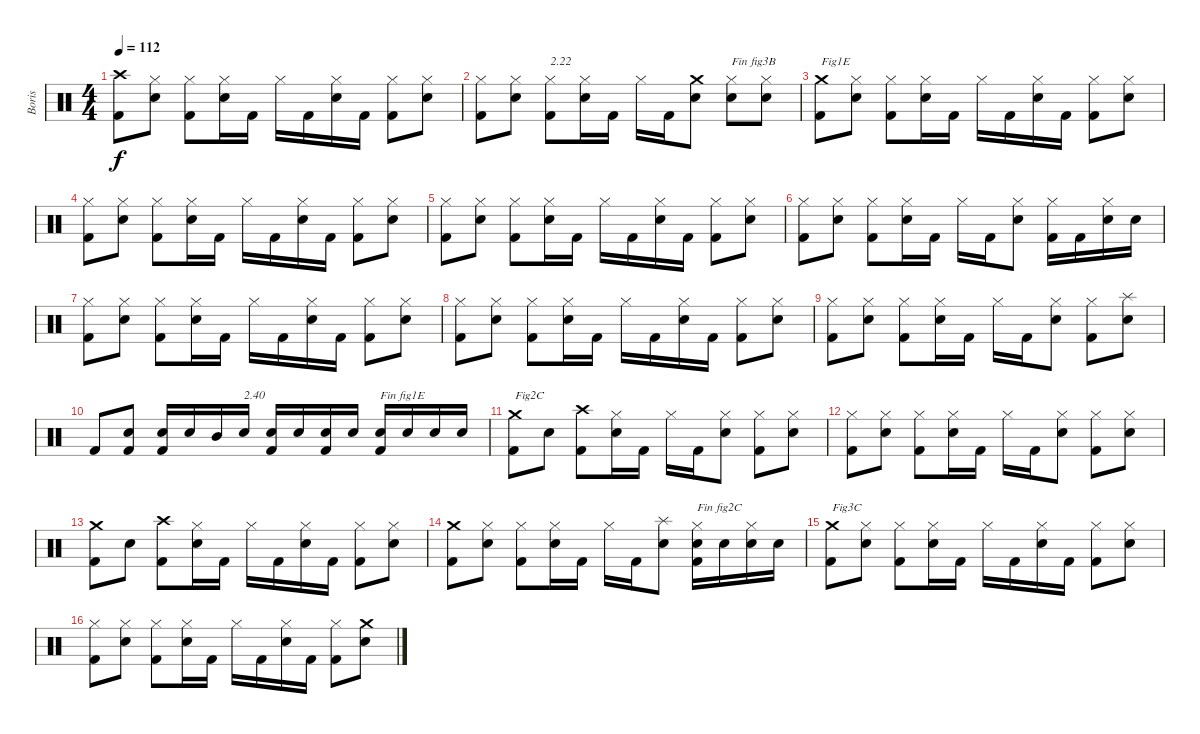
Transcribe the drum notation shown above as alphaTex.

\track ("Boris" "Boris") {instrument percussion}
\staff {score}
\articulation defaults
\ts (4 4)
\tempo 112
\clef neutral
\ks c
("Kick (hit) 2" "Crash high (hit)").8{dy f} ("Electric Snare (hit)" "Hi-Hat (closed)").8 ("Kick (hit) 2" "Hi-Hat (closed)").8 ("Electric Snare (hit)" "Hi-Hat (closed)").16 "Kick (hit) 2".16 "Hi-Hat (closed)".16 "Kick (hit) 2".16 ("Electric Snare (hit)" "Hi-Hat (closed)").16 "Kick (hit) 2".16 ("Kick (hit) 2" "Hi-Hat (closed)").8 ("Electric Snare (hit)" "Hi-Hat (closed)").8 |
("Kick (hit) 2" "Hi-Hat (closed)").8 ("Electric Snare (hit)" "Hi-Hat (closed)").8 ("Kick (hit) 2" "Hi-Hat (closed)").8{txt "2.22"} ("Electric Snare (hit)" "Hi-Hat (closed)").16 "Kick (hit) 2".16 "Hi-Hat (closed)".16 "Kick (hit) 2".16 ("Electric Snare (hit)" "Crash medium (hit)").8 ("Electric Snare (hit)" "Hi-Hat (closed)").8{txt "Fin fig3B"} ("Electric Snare (hit)" "Hi-Hat (closed)").8 |
("Kick (hit) 2" "Crash medium (hit)").8{txt "Fig1E"} ("Electric Snare (hit)" "Hi-Hat (closed)").8 ("Kick (hit) 2" "Hi-Hat (closed)").8 ("Electric Snare (hit)" "Hi-Hat (closed)").16 "Kick (hit) 2".16 "Hi-Hat (closed)".16 "Kick (hit) 2".16 ("Electric Snare (hit)" "Hi-Hat (closed)").16 "Kick (hit) 2".16 ("Kick (hit) 2" "Hi-Hat (closed)").8 ("Electric Snare (hit)" "Hi-Hat (closed)").8 |
("Kick (hit) 2" "Hi-Hat (closed)").8 ("Electric Snare (hit)" "Hi-Hat (closed)").8 ("Kick (hit) 2" "Hi-Hat (closed)").8 ("Electric Snare (hit)" "Hi-Hat (closed)").16 "Kick (hit) 2".16 "Hi-Hat (closed)".16 "Kick (hit) 2".16 ("Electric Snare (hit)" "Hi-Hat (closed)").16 "Kick (hit) 2".16 ("Kick (hit) 2" "Hi-Hat (closed)").8 ("Electric Snare (hit)" "Hi-Hat (closed)").8 |
("Kick (hit) 2" "Hi-Hat (closed)").8 ("Electric Snare (hit)" "Hi-Hat (closed)").8 ("Kick (hit) 2" "Hi-Hat (closed)").8 ("Electric Snare (hit)" "Hi-Hat (closed)").16 "Kick (hit) 2".16 "Hi-Hat (closed)".16 "Kick (hit) 2".16 ("Electric Snare (hit)" "Hi-Hat (closed)").16 "Kick (hit) 2".16 ("Kick (hit) 2" "Hi-Hat (closed)").8 ("Electric Snare (hit)" "Hi-Hat (closed)").8 |
("Kick (hit) 2" "Hi-Hat (closed)").8 ("Electric Snare (hit)" "Hi-Hat (closed)").8 ("Kick (hit) 2" "Hi-Hat (closed)").8 ("Electric Snare (hit)" "Hi-Hat (closed)").16 "Kick (hit) 2".16 "Hi-Hat (closed)".16 "Kick (hit) 2".16 ("Electric Snare (hit)" "Hi-Hat (closed)").8 ("Kick (hit) 2" "Hi-Hat (closed)").16 "Kick (hit) 2".16 ("Electric Snare (hit)" "Hi-Hat (closed)").16 "Electric Snare (hit)".16 |
("Kick (hit) 2" "Hi-Hat (closed)").8 ("Electric Snare (hit)" "Hi-Hat (closed)").8 ("Kick (hit) 2" "Hi-Hat (closed)").8 ("Electric Snare (hit)" "Hi-Hat (closed)").16 "Kick (hit) 2".16 "Hi-Hat (closed)".16 "Kick (hit) 2".16 ("Electric Snare (hit)" "Hi-Hat (closed)").16 "Kick (hit) 2".16 ("Kick (hit) 2" "Hi-Hat (closed)").8 ("Electric Snare (hit)" "Hi-Hat (closed)").8 |
("Kick (hit) 2" "Hi-Hat (closed)").8 ("Electric Snare (hit)" "Hi-Hat (closed)").8 ("Kick (hit) 2" "Hi-Hat (closed)").8 ("Electric Snare (hit)" "Hi-Hat (closed)").16 "Kick (hit) 2".16 "Hi-Hat (closed)".16 "Kick (hit) 2".16 ("Electric Snare (hit)" "Hi-Hat (closed)").16 "Kick (hit) 2".16 ("Kick (hit) 2" "Hi-Hat (closed)").8 ("Electric Snare (hit)" "Hi-Hat (closed)").8 |
("Kick (hit) 2" "Hi-Hat (closed)").8 ("Electric Snare (hit)" "Hi-Hat (closed)").8 ("Kick (hit) 2" "Hi-Hat (closed)").8 ("Electric Snare (hit)" "Hi-Hat (closed)").16 "Kick (hit) 2".16 "Hi-Hat (closed)".16 "Kick (hit) 2".16 ("Electric Snare (hit)" "Hi-Hat (closed)").8 ("Kick (hit) 2" "Hi-Hat (closed)").8 ("Electric Snare (hit)" "Splash (hit)").8 |
"Kick (hit) 2".8 ("Kick (hit) 2" "Electric Snare (hit)").8 ("Kick (hit) 2" "Electric Snare (hit)").16 "Electric Snare (hit)".16 "Mid Tom (hit)".16 "Electric Snare (hit)".16{txt "2.40"} ("Kick (hit) 2" "Electric Snare (hit)").16 "Electric Snare (hit)".16 ("Kick (hit) 2" "Electric Snare (hit)").16 "Electric Snare (hit)".16 ("Kick (hit) 2" "Electric Snare (hit)").16{txt "Fin fig1E"} "Electric Snare (hit)".16 "Electric Snare (hit)".16 "Electric Snare (hit)".16 |
("Kick (hit) 2" "Crash medium (hit)").8{txt "Fig2C"} "Electric Snare (hit)".8 ("Kick (hit) 2" "Crash high (hit)").8 ("Electric Snare (hit)" "Hi-Hat (closed)").16 "Kick (hit) 2".16 "Hi-Hat (closed)".16 "Kick (hit) 2".16 ("Electric Snare (hit)" "Hi-Hat (closed)").8 ("Kick (hit) 2" "Hi-Hat (closed)").8 ("Electric Snare (hit)" "Hi-Hat (closed)").8 |
("Kick (hit) 2" "Hi-Hat (closed)").8 ("Electric Snare (hit)" "Hi-Hat (closed)").8 ("Kick (hit) 2" "Hi-Hat (closed)").8 ("Electric Snare (hit)" "Hi-Hat (closed)").16 "Kick (hit) 2".16 "Hi-Hat (closed)".16 "Kick (hit) 2".16 ("Electric Snare (hit)" "Hi-Hat (closed)").8 ("Kick (hit) 2" "Hi-Hat (closed)").8 ("Electric Snare (hit)" "Hi-Hat (closed)").8 |
("Kick (hit) 2" "Crash medium (hit)").8 "Electric Snare (hit)".8 ("Kick (hit) 2" "Crash high (hit)").8 ("Electric Snare (hit)" "Hi-Hat (closed)").16 "Kick (hit) 2".16 "Hi-Hat (closed)".16 "Kick (hit) 2".16 ("Electric Snare (hit)" "Hi-Hat (closed)").16 "Kick (hit) 2".16 ("Kick (hit) 2" "Hi-Hat (closed)").8 ("Electric Snare (hit)" "Hi-Hat (closed)").8 |
("Kick (hit) 2" "Crash medium (hit)").8 ("Electric Snare (hit)" "Hi-Hat (closed)").8 ("Kick (hit) 2" "Hi-Hat (closed)").8 ("Electric Snare (hit)" "Hi-Hat (closed)").16 "Kick (hit) 2".16 "Hi-Hat (closed)".16 "Kick (hit) 2".16 ("Electric Snare (hit)" "Splash (hit)").8 ("Kick (hit) 2" "Electric Snare (hit)" "Hi-Hat (closed)").16{txt "Fin fig2C"} "Electric Snare (hit)".16 ("Electric Snare (hit)" "Hi-Hat (closed)").16 "Electric Snare (hit)".16 |
("Kick (hit) 2" "Crash medium (hit)").8{txt "Fig3C"} ("Electric Snare (hit)" "Hi-Hat (closed)").8 ("Kick (hit) 2" "Hi-Hat (closed)").8 ("Electric Snare (hit)" "Hi-Hat (closed)").16 "Kick (hit) 2".16 "Hi-Hat (closed)".16 "Kick (hit) 2".16 ("Electric Snare (hit)" "Hi-Hat (closed)").16 "Kick (hit) 2".16 ("Kick (hit) 2" "Hi-Hat (closed)").8 ("Electric Snare (hit)" "Hi-Hat (closed)").8 |
("Kick (hit) 2" "Hi-Hat (closed)").8 ("Electric Snare (hit)" "Hi-Hat (closed)").8 ("Kick (hit) 2" "Hi-Hat (closed)").8 ("Electric Snare (hit)" "Hi-Hat (closed)").16 "Kick (hit) 2".16 "Hi-Hat (closed)".16 "Kick (hit) 2".16 ("Electric Snare (hit)" "Hi-Hat (closed)").16 "Kick (hit) 2".16 ("Kick (hit) 2" "Hi-Hat (closed)").8 ("Electric Snare (hit)" "Crash medium (hit)").8
